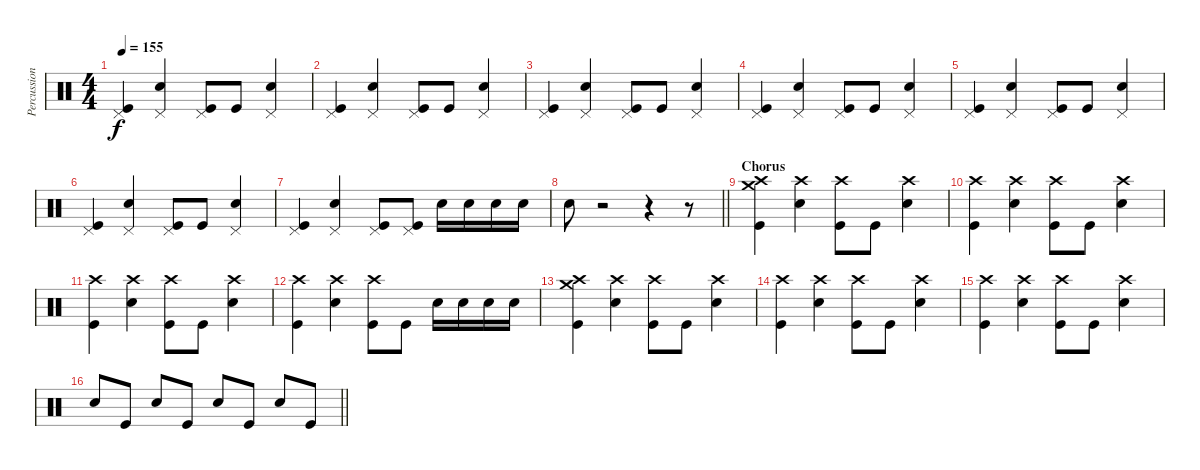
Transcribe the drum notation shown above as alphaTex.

\track ("Percussion" "Percussion") {instrument percussion}
\staff {score}
\articulation defaults
\ts (4 4)
\tempo 155
\clef neutral
\ks c
("Pedal Hi-Hat (hit)" "Kick (hit)").4{dy f} ("Pedal Hi-Hat (hit)" "Electric Snare (hit)").4 ("Pedal Hi-Hat (hit)" "Kick (hit)").8 "Kick (hit)".8 ("Pedal Hi-Hat (hit)" "Electric Snare (hit)").4 |
("Pedal Hi-Hat (hit)" "Kick (hit)").4 ("Pedal Hi-Hat (hit)" "Electric Snare (hit)").4 ("Pedal Hi-Hat (hit)" "Kick (hit)").8 "Kick (hit)".8 ("Pedal Hi-Hat (hit)" "Electric Snare (hit)").4 |
("Pedal Hi-Hat (hit)" "Kick (hit)").4 ("Pedal Hi-Hat (hit)" "Electric Snare (hit)").4 ("Pedal Hi-Hat (hit)" "Kick (hit)").8 "Kick (hit)".8 ("Pedal Hi-Hat (hit)" "Electric Snare (hit)").4 |
("Pedal Hi-Hat (hit)" "Kick (hit)").4 ("Pedal Hi-Hat (hit)" "Electric Snare (hit)").4 ("Pedal Hi-Hat (hit)" "Kick (hit)").8 "Kick (hit)".8 ("Pedal Hi-Hat (hit)" "Electric Snare (hit)").4 |
("Pedal Hi-Hat (hit)" "Kick (hit)").4 ("Pedal Hi-Hat (hit)" "Electric Snare (hit)").4 ("Pedal Hi-Hat (hit)" "Kick (hit)").8 "Kick (hit)".8 ("Pedal Hi-Hat (hit)" "Electric Snare (hit)").4 |
("Pedal Hi-Hat (hit)" "Kick (hit)").4 ("Pedal Hi-Hat (hit)" "Electric Snare (hit)").4 ("Pedal Hi-Hat (hit)" "Kick (hit)").8 "Kick (hit)".8 ("Pedal Hi-Hat (hit)" "Electric Snare (hit)").4 |
("Pedal Hi-Hat (hit)" "Kick (hit)").4 ("Pedal Hi-Hat (hit)" "Electric Snare (hit)").4 ("Pedal Hi-Hat (hit)" "Kick (hit)").8 ("Pedal Hi-Hat (hit)" "Kick (hit)").8 "Electric Snare (hit)".16 "Electric Snare (hit)".16 "Electric Snare (hit)".16 "Electric Snare (hit)".16 |
\barLineRight lightlight "Electric Snare (hit)".8
r.2 r.4 r.8 |
\section ("" "Chorus")
("Crash high (hit)" "Crash medium (hit)" "Kick (hit)").4 ("Crash high (hit)" "Electric Snare (hit)").4 ("Crash high (hit)" "Kick (hit)").8 "Kick (hit)".8 ("Crash high (hit)" "Electric Snare (hit)").4 |
("Crash high (hit)" "Kick (hit)").4 ("Crash high (hit)" "Electric Snare (hit)").4 ("Crash high (hit)" "Kick (hit)").8 "Kick (hit)".8 ("Crash high (hit)" "Electric Snare (hit)").4 |
("Crash high (hit)" "Kick (hit)").4 ("Crash high (hit)" "Electric Snare (hit)").4 ("Crash high (hit)" "Kick (hit)").8 "Kick (hit)".8 ("Crash high (hit)" "Electric Snare (hit)").4 |
("Crash high (hit)" "Kick (hit)").4 ("Crash high (hit)" "Electric Snare (hit)").4 ("Crash high (hit)" "Kick (hit)").8 "Kick (hit)".8 "Electric Snare (hit)".16 "Electric Snare (hit)".16 "Electric Snare (hit)".16 "Electric Snare (hit)".16 |
("Crash high (hit)" "Crash medium (hit)" "Kick (hit)").4 ("Crash high (hit)" "Electric Snare (hit)").4 ("Crash high (hit)" "Kick (hit)").8 "Kick (hit)".8 ("Crash high (hit)" "Electric Snare (hit)").4 |
("Crash high (hit)" "Kick (hit)").4 ("Crash high (hit)" "Electric Snare (hit)").4 ("Crash high (hit)" "Kick (hit)").8 "Kick (hit)".8 ("Crash high (hit)" "Electric Snare (hit)").4 |
("Crash high (hit)" "Kick (hit)").4 ("Crash high (hit)" "Electric Snare (hit)").4 ("Crash high (hit)" "Kick (hit)").8 "Kick (hit)".8 ("Crash high (hit)" "Electric Snare (hit)").4 |
\barLineRight lightlight "Electric Snare (hit)".8 "Kick (hit)".8 "Electric Snare (hit)".8 "Kick (hit)".8 "Electric Snare (hit)".8 "Kick (hit)".8 "Electric Snare (hit)".8 "Kick (hit)".8
